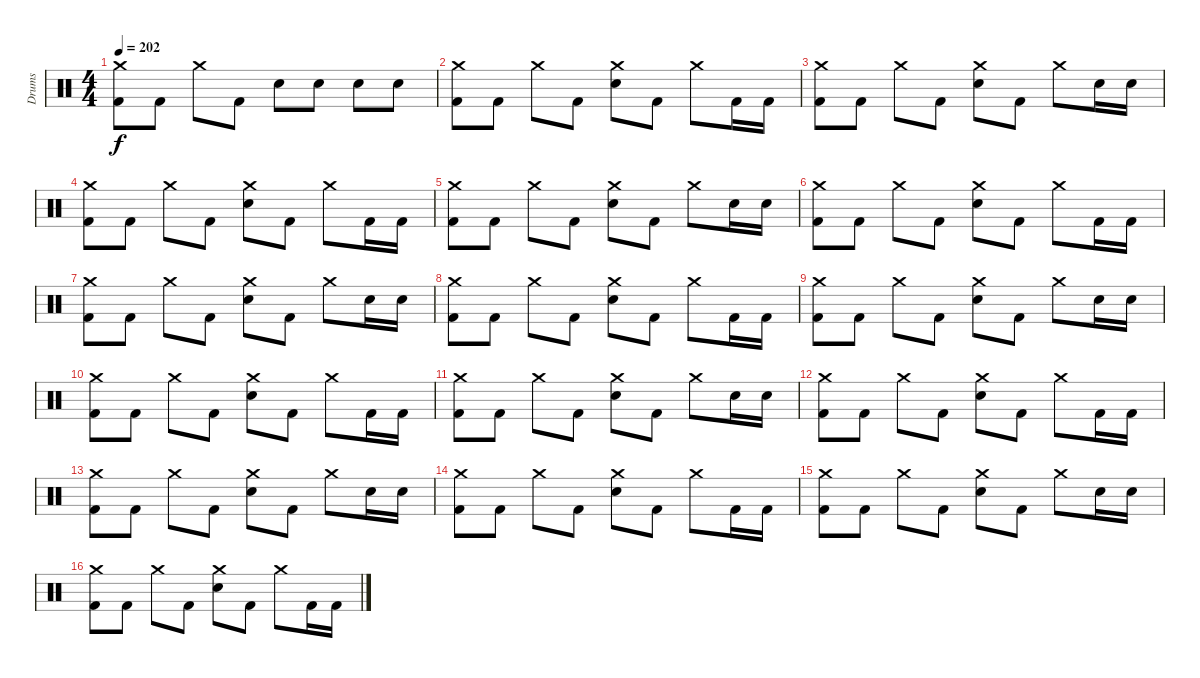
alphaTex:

\track ("Drums" "Drums") {instrument percussion}
\staff {score}
\articulation defaults
\ts (4 4)
\tempo 202
\clef neutral
\ks c
("Crash medium (hit)" "Kick (hit) 2").8{dy f} "Kick (hit) 2".8 "Crash medium (hit)".8 "Kick (hit) 2".8 "Electric Snare (hit)".8 "Electric Snare (hit)".8 "Electric Snare (hit)".8 "Electric Snare (hit)".8 |
("Crash medium (hit)" "Kick (hit) 2").8 "Kick (hit) 2".8 "Crash medium (hit)".8 "Kick (hit) 2".8 ("Crash medium (hit)" "Electric Snare (hit)").8 "Kick (hit) 2".8 "Crash medium (hit)".8 "Kick (hit) 2".16 "Kick (hit) 2".16 |
("Crash medium (hit)" "Kick (hit) 2").8 "Kick (hit) 2".8 "Crash medium (hit)".8 "Kick (hit) 2".8 ("Crash medium (hit)" "Electric Snare (hit)").8 "Kick (hit) 2".8 "Crash medium (hit)".8 "Electric Snare (hit)".16 "Electric Snare (hit)".16 |
("Crash medium (hit)" "Kick (hit) 2").8 "Kick (hit) 2".8 "Crash medium (hit)".8 "Kick (hit) 2".8 ("Crash medium (hit)" "Electric Snare (hit)").8 "Kick (hit) 2".8 "Crash medium (hit)".8 "Kick (hit) 2".16 "Kick (hit) 2".16 |
("Crash medium (hit)" "Kick (hit) 2").8 "Kick (hit) 2".8 "Crash medium (hit)".8 "Kick (hit) 2".8 ("Crash medium (hit)" "Electric Snare (hit)").8 "Kick (hit) 2".8 "Crash medium (hit)".8 "Electric Snare (hit)".16 "Electric Snare (hit)".16 |
("Crash medium (hit)" "Kick (hit) 2").8 "Kick (hit) 2".8 "Crash medium (hit)".8 "Kick (hit) 2".8 ("Crash medium (hit)" "Electric Snare (hit)").8 "Kick (hit) 2".8 "Crash medium (hit)".8 "Kick (hit) 2".16 "Kick (hit) 2".16 |
("Crash medium (hit)" "Kick (hit) 2").8 "Kick (hit) 2".8 "Crash medium (hit)".8 "Kick (hit) 2".8 ("Crash medium (hit)" "Electric Snare (hit)").8 "Kick (hit) 2".8 "Crash medium (hit)".8 "Electric Snare (hit)".16 "Electric Snare (hit)".16 |
("Crash medium (hit)" "Kick (hit) 2").8 "Kick (hit) 2".8 "Crash medium (hit)".8 "Kick (hit) 2".8 ("Crash medium (hit)" "Electric Snare (hit)").8 "Kick (hit) 2".8 "Crash medium (hit)".8 "Kick (hit) 2".16 "Kick (hit) 2".16 |
("Crash medium (hit)" "Kick (hit) 2").8 "Kick (hit) 2".8 "Crash medium (hit)".8 "Kick (hit) 2".8 ("Crash medium (hit)" "Electric Snare (hit)").8 "Kick (hit) 2".8 "Crash medium (hit)".8 "Electric Snare (hit)".16 "Electric Snare (hit)".16 |
("Crash medium (hit)" "Kick (hit) 2").8 "Kick (hit) 2".8 "Crash medium (hit)".8 "Kick (hit) 2".8 ("Crash medium (hit)" "Electric Snare (hit)").8 "Kick (hit) 2".8 "Crash medium (hit)".8 "Kick (hit) 2".16 "Kick (hit) 2".16 |
("Crash medium (hit)" "Kick (hit) 2").8 "Kick (hit) 2".8 "Crash medium (hit)".8 "Kick (hit) 2".8 ("Crash medium (hit)" "Electric Snare (hit)").8 "Kick (hit) 2".8 "Crash medium (hit)".8 "Electric Snare (hit)".16 "Electric Snare (hit)".16 |
("Crash medium (hit)" "Kick (hit) 2").8 "Kick (hit) 2".8 "Crash medium (hit)".8 "Kick (hit) 2".8 ("Crash medium (hit)" "Electric Snare (hit)").8 "Kick (hit) 2".8 "Crash medium (hit)".8 "Kick (hit) 2".16 "Kick (hit) 2".16 |
("Crash medium (hit)" "Kick (hit) 2").8 "Kick (hit) 2".8 "Crash medium (hit)".8 "Kick (hit) 2".8 ("Crash medium (hit)" "Electric Snare (hit)").8 "Kick (hit) 2".8 "Crash medium (hit)".8 "Electric Snare (hit)".16 "Electric Snare (hit)".16 |
("Crash medium (hit)" "Kick (hit) 2").8 "Kick (hit) 2".8 "Crash medium (hit)".8 "Kick (hit) 2".8 ("Crash medium (hit)" "Electric Snare (hit)").8 "Kick (hit) 2".8 "Crash medium (hit)".8 "Kick (hit) 2".16 "Kick (hit) 2".16 |
("Crash medium (hit)" "Kick (hit) 2").8 "Kick (hit) 2".8 "Crash medium (hit)".8 "Kick (hit) 2".8 ("Crash medium (hit)" "Electric Snare (hit)").8 "Kick (hit) 2".8 "Crash medium (hit)".8 "Electric Snare (hit)".16 "Electric Snare (hit)".16 |
("Crash medium (hit)" "Kick (hit) 2").8 "Kick (hit) 2".8 "Crash medium (hit)".8 "Kick (hit) 2".8 ("Crash medium (hit)" "Electric Snare (hit)").8 "Kick (hit) 2".8 "Crash medium (hit)".8 "Kick (hit) 2".16 "Kick (hit) 2".16
